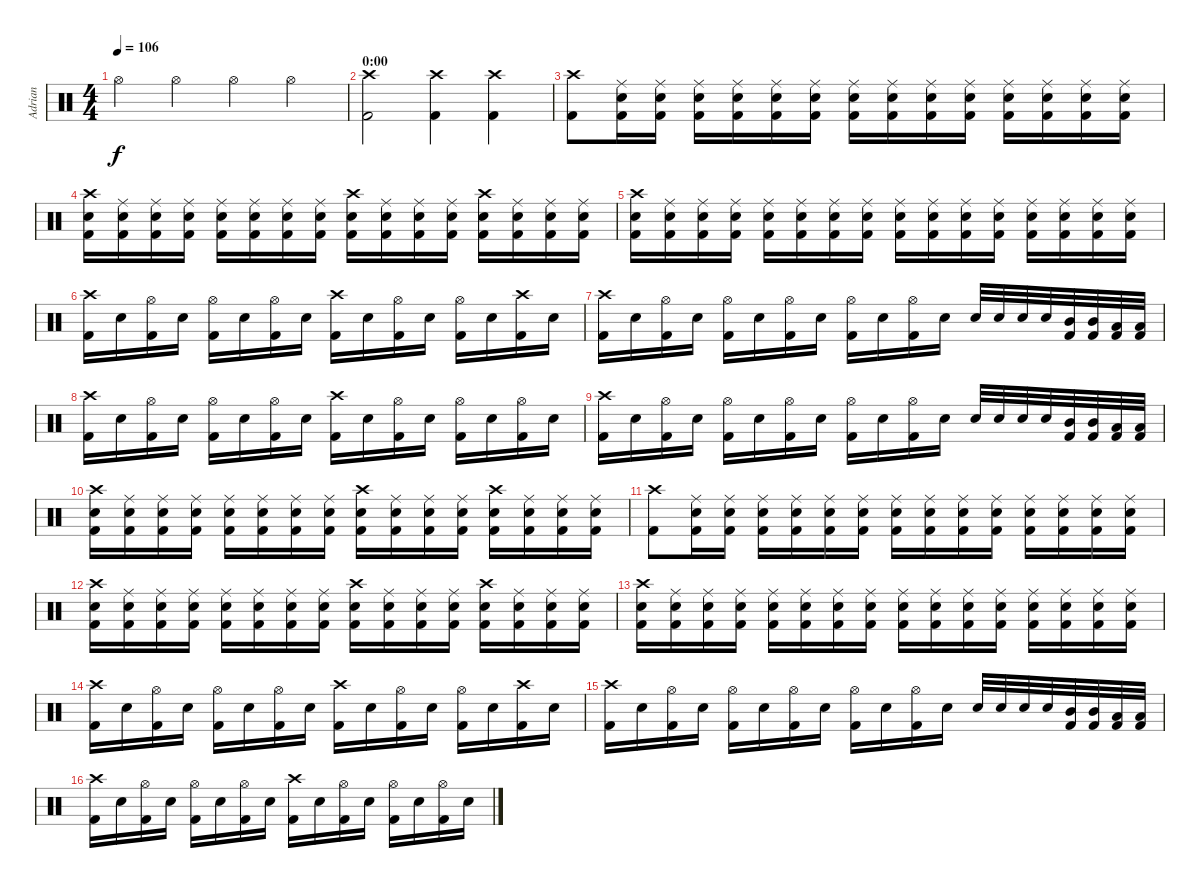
\track ("Adrian" "Adrian") {instrument percussion}
\staff {score}
\articulation defaults
\ts (4 4)
\tempo 106
\clef neutral
\ks c "Hi-Hat (open)".4{dy f} "Hi-Hat (open)".4 "Hi-Hat (open)".4 "Hi-Hat (open)".4
|
\section ("" "0:00")
("Kick (hit) 2" "Crash high (hit)").2 ("Kick (hit) 2" "Crash high (hit)").4 ("Kick (hit) 2" "Crash high (hit)").4 |
("Kick (hit) 2" "Crash high (hit)").8 ("Kick (hit) 2" "Snare (hit) 2" "Ride (middle)").16 ("Kick (hit) 2" "Snare (hit) 2" "Ride (middle)").16 ("Kick (hit) 2" "Snare (hit) 2" "Ride (middle)").16 ("Kick (hit) 2" "Snare (hit) 2" "Ride (middle)").16 ("Kick (hit) 2" "Snare (hit) 2" "Ride (middle)").16 ("Kick (hit) 2" "Snare (hit) 2" "Ride (middle)").16 ("Kick (hit) 2" "Snare (hit) 2" "Ride (middle)").16 ("Kick (hit) 2" "Snare (hit) 2" "Ride (middle)").16 ("Kick (hit) 2" "Snare (hit) 2" "Ride (middle)").16 ("Kick (hit) 2" "Snare (hit) 2" "Ride (middle)").16 ("Kick (hit) 2" "Snare (hit) 2" "Ride (middle)").16 ("Kick (hit) 2" "Snare (hit) 2" "Ride (middle)").16 ("Kick (hit) 2" "Snare (hit) 2" "Ride (middle)").16 ("Kick (hit) 2" "Snare (hit) 2" "Ride (middle)").16 |
("Kick (hit) 2" "Snare (hit) 2" "Crash high (hit)").16 ("Kick (hit) 2" "Snare (hit) 2" "Ride (middle)").16 ("Kick (hit) 2" "Snare (hit) 2" "Ride (middle)").16 ("Kick (hit) 2" "Snare (hit) 2" "Ride (middle)").16 ("Kick (hit) 2" "Snare (hit) 2" "Ride (middle)").16 ("Kick (hit) 2" "Snare (hit) 2" "Ride (middle)").16 ("Kick (hit) 2" "Snare (hit) 2" "Ride (middle)").16 ("Kick (hit) 2" "Snare (hit) 2" "Ride (middle)").16 ("Kick (hit) 2" "Snare (hit) 2" "Crash high (hit)").16 ("Kick (hit) 2" "Snare (hit) 2" "Ride (middle)").16 ("Kick (hit) 2" "Snare (hit) 2" "Ride (middle)").16 ("Kick (hit) 2" "Snare (hit) 2" "Ride (middle)").16 ("Kick (hit) 2" "Snare (hit) 2" "Crash high (hit)").16 ("Kick (hit) 2" "Snare (hit) 2" "Ride (middle)").16 ("Kick (hit) 2" "Snare (hit) 2" "Ride (middle)").16 ("Kick (hit) 2" "Snare (hit) 2" "Ride (middle)").16 |
("Kick (hit) 2" "Snare (hit) 2" "Crash high (hit)").16 ("Kick (hit) 2" "Snare (hit) 2" "Ride (middle)").16 ("Kick (hit) 2" "Snare (hit) 2" "Ride (middle)").16 ("Kick (hit) 2" "Snare (hit) 2" "Ride (middle)").16 ("Kick (hit) 2" "Snare (hit) 2" "Ride (middle)").16 ("Kick (hit) 2" "Snare (hit) 2" "Ride (middle)").16 ("Kick (hit) 2" "Snare (hit) 2" "Ride (middle)").16 ("Kick (hit) 2" "Snare (hit) 2" "Ride (middle)").16 ("Kick (hit) 2" "Snare (hit) 2" "Ride (middle)").16 ("Kick (hit) 2" "Snare (hit) 2" "Ride (middle)").16 ("Kick (hit) 2" "Snare (hit) 2" "Ride (middle)").16 ("Kick (hit) 2" "Snare (hit) 2" "Ride (middle)").16 ("Kick (hit) 2" "Snare (hit) 2" "Ride (middle)").16 ("Kick (hit) 2" "Snare (hit) 2" "Ride (middle)").16 ("Kick (hit) 2" "Snare (hit) 2" "Ride (middle)").16 ("Kick (hit) 2" "Snare (hit) 2" "Ride (middle)").16 |
("Kick (hit) 2" "Crash high (hit)").16 "Snare (hit) 2".16 ("Kick (hit) 2" "Hi-Hat (open)").16 "Snare (hit) 2".16 ("Kick (hit) 2" "Hi-Hat (open)").16 "Snare (hit) 2".16 ("Kick (hit) 2" "Hi-Hat (open)").16 "Snare (hit) 2".16 ("Kick (hit) 2" "Crash high (hit)").16 "Snare (hit) 2".16 ("Kick (hit) 2" "Hi-Hat (open)").16 "Snare (hit) 2".16 ("Kick (hit) 2" "Hi-Hat (open)").16 "Snare (hit) 2".16 ("Kick (hit) 2" "Crash high (hit)").16 "Snare (hit) 2".16 |
("Kick (hit) 2" "Crash high (hit)").16 "Snare (hit) 2".16 ("Kick (hit) 2" "Hi-Hat (open)").16 "Snare (hit) 2".16 ("Kick (hit) 2" "Hi-Hat (open)").16 "Snare (hit) 2".16 ("Kick (hit) 2" "Hi-Hat (open)").16 "Snare (hit) 2".16 ("Kick (hit) 2" "Hi-Hat (open)").16 "Snare (hit) 2".16 ("Kick (hit) 2" "Hi-Hat (open)").16 "Snare (hit) 2".16 "Snare (hit) 2".32 "Snare (hit) 2".32 "Snare (hit) 2".32 "Snare (hit) 2".32 ("Kick (hit) 2" "Mid Tom (hit)").32 ("Kick (hit) 2" "Mid Tom (hit)").32 ("Kick (hit) 2" "Low Tom (hit)").32 ("Kick (hit) 2" "Low Tom (hit)").32 |
("Kick (hit) 2" "Crash high (hit)").16 "Snare (hit) 2".16 ("Kick (hit) 2" "Hi-Hat (open)").16 "Snare (hit) 2".16 ("Kick (hit) 2" "Hi-Hat (open)").16 "Snare (hit) 2".16 ("Kick (hit) 2" "Hi-Hat (open)").16 "Snare (hit) 2".16 ("Kick (hit) 2" "Crash high (hit)").16 "Snare (hit) 2".16 ("Kick (hit) 2" "Hi-Hat (open)").16 "Snare (hit) 2".16 ("Kick (hit) 2" "Hi-Hat (open)").16 "Snare (hit) 2".16 ("Kick (hit) 2" "Hi-Hat (open)").16 "Snare (hit) 2".16 |
("Kick (hit) 2" "Crash high (hit)").16 "Snare (hit) 2".16 ("Kick (hit) 2" "Hi-Hat (open)").16 "Snare (hit) 2".16 ("Kick (hit) 2" "Hi-Hat (open)").16 "Snare (hit) 2".16 ("Kick (hit) 2" "Hi-Hat (open)").16 "Snare (hit) 2".16 ("Kick (hit) 2" "Hi-Hat (open)").16 "Snare (hit) 2".16 ("Kick (hit) 2" "Hi-Hat (open)").16 "Snare (hit) 2".16 "Snare (hit) 2".32 "Snare (hit) 2".32 "Snare (hit) 2".32 "Snare (hit) 2".32 ("Kick (hit) 2" "Mid Tom (hit)").32 ("Kick (hit) 2" "Mid Tom (hit)").32 ("Kick (hit) 2" "Low Tom (hit)").32 ("Kick (hit) 2" "Low Tom (hit)").32 |
("Kick (hit) 2" "Snare (hit) 2" "Crash high (hit)").16 ("Kick (hit) 2" "Snare (hit) 2" "Ride (middle)").16 ("Kick (hit) 2" "Snare (hit) 2" "Ride (middle)").16 ("Kick (hit) 2" "Snare (hit) 2" "Ride (middle)").16 ("Kick (hit) 2" "Snare (hit) 2" "Ride (middle)").16 ("Kick (hit) 2" "Snare (hit) 2" "Ride (middle)").16 ("Kick (hit) 2" "Snare (hit) 2" "Ride (middle)").16 ("Kick (hit) 2" "Snare (hit) 2" "Ride (middle)").16 ("Kick (hit) 2" "Snare (hit) 2" "Crash high (hit)").16 ("Kick (hit) 2" "Snare (hit) 2" "Ride (middle)").16 ("Kick (hit) 2" "Snare (hit) 2" "Ride (middle)").16 ("Kick (hit) 2" "Snare (hit) 2" "Ride (middle)").16 ("Kick (hit) 2" "Snare (hit) 2" "Crash high (hit)").16 ("Kick (hit) 2" "Snare (hit) 2" "Ride (middle)").16 ("Kick (hit) 2" "Snare (hit) 2" "Ride (middle)").16 ("Kick (hit) 2" "Snare (hit) 2" "Ride (middle)").16 |
("Kick (hit) 2" "Crash high (hit)").8 ("Kick (hit) 2" "Snare (hit) 2" "Ride (middle)").16 ("Kick (hit) 2" "Snare (hit) 2" "Ride (middle)").16 ("Kick (hit) 2" "Snare (hit) 2" "Ride (middle)").16 ("Kick (hit) 2" "Snare (hit) 2" "Ride (middle)").16 ("Kick (hit) 2" "Snare (hit) 2" "Ride (middle)").16 ("Kick (hit) 2" "Snare (hit) 2" "Ride (middle)").16 ("Kick (hit) 2" "Snare (hit) 2" "Ride (middle)").16 ("Kick (hit) 2" "Snare (hit) 2" "Ride (middle)").16 ("Kick (hit) 2" "Snare (hit) 2" "Ride (middle)").16 ("Kick (hit) 2" "Snare (hit) 2" "Ride (middle)").16 ("Kick (hit) 2" "Snare (hit) 2" "Ride (middle)").16 ("Kick (hit) 2" "Snare (hit) 2" "Ride (middle)").16 ("Kick (hit) 2" "Snare (hit) 2" "Ride (middle)").16 ("Kick (hit) 2" "Snare (hit) 2" "Ride (middle)").16 |
("Kick (hit) 2" "Snare (hit) 2" "Crash high (hit)").16 ("Kick (hit) 2" "Snare (hit) 2" "Ride (middle)").16 ("Kick (hit) 2" "Snare (hit) 2" "Ride (middle)").16 ("Kick (hit) 2" "Snare (hit) 2" "Ride (middle)").16 ("Kick (hit) 2" "Snare (hit) 2" "Ride (middle)").16 ("Kick (hit) 2" "Snare (hit) 2" "Ride (middle)").16 ("Kick (hit) 2" "Snare (hit) 2" "Ride (middle)").16 ("Kick (hit) 2" "Snare (hit) 2" "Ride (middle)").16 ("Kick (hit) 2" "Snare (hit) 2" "Crash high (hit)").16 ("Kick (hit) 2" "Snare (hit) 2" "Ride (middle)").16 ("Kick (hit) 2" "Snare (hit) 2" "Ride (middle)").16 ("Kick (hit) 2" "Snare (hit) 2" "Ride (middle)").16 ("Kick (hit) 2" "Snare (hit) 2" "Crash high (hit)").16 ("Kick (hit) 2" "Snare (hit) 2" "Ride (middle)").16 ("Kick (hit) 2" "Snare (hit) 2" "Ride (middle)").16 ("Kick (hit) 2" "Snare (hit) 2" "Ride (middle)").16 |
("Kick (hit) 2" "Snare (hit) 2" "Crash high (hit)").16 ("Kick (hit) 2" "Snare (hit) 2" "Ride (middle)").16 ("Kick (hit) 2" "Snare (hit) 2" "Ride (middle)").16 ("Kick (hit) 2" "Snare (hit) 2" "Ride (middle)").16 ("Kick (hit) 2" "Snare (hit) 2" "Ride (middle)").16 ("Kick (hit) 2" "Snare (hit) 2" "Ride (middle)").16 ("Kick (hit) 2" "Snare (hit) 2" "Ride (middle)").16 ("Kick (hit) 2" "Snare (hit) 2" "Ride (middle)").16 ("Kick (hit) 2" "Snare (hit) 2" "Ride (middle)").16 ("Kick (hit) 2" "Snare (hit) 2" "Ride (middle)").16 ("Kick (hit) 2" "Snare (hit) 2" "Ride (middle)").16 ("Kick (hit) 2" "Snare (hit) 2" "Ride (middle)").16 ("Kick (hit) 2" "Snare (hit) 2" "Ride (middle)").16 ("Kick (hit) 2" "Snare (hit) 2" "Ride (middle)").16 ("Kick (hit) 2" "Snare (hit) 2" "Ride (middle)").16 ("Kick (hit) 2" "Snare (hit) 2" "Ride (middle)").16 |
("Kick (hit) 2" "Crash high (hit)").16 "Snare (hit) 2".16 ("Kick (hit) 2" "Hi-Hat (open)").16 "Snare (hit) 2".16 ("Kick (hit) 2" "Hi-Hat (open)").16 "Snare (hit) 2".16 ("Kick (hit) 2" "Hi-Hat (open)").16 "Snare (hit) 2".16 ("Kick (hit) 2" "Crash high (hit)").16 "Snare (hit) 2".16 ("Kick (hit) 2" "Hi-Hat (open)").16 "Snare (hit) 2".16 ("Kick (hit) 2" "Hi-Hat (open)").16 "Snare (hit) 2".16 ("Kick (hit) 2" "Crash high (hit)").16 "Snare (hit) 2".16 |
("Kick (hit) 2" "Crash high (hit)").16 "Snare (hit) 2".16 ("Kick (hit) 2" "Hi-Hat (open)").16 "Snare (hit) 2".16 ("Kick (hit) 2" "Hi-Hat (open)").16 "Snare (hit) 2".16 ("Kick (hit) 2" "Hi-Hat (open)").16 "Snare (hit) 2".16 ("Kick (hit) 2" "Hi-Hat (open)").16 "Snare (hit) 2".16 ("Kick (hit) 2" "Hi-Hat (open)").16 "Snare (hit) 2".16 "Snare (hit) 2".32 "Snare (hit) 2".32 "Snare (hit) 2".32 "Snare (hit) 2".32 ("Kick (hit) 2" "Mid Tom (hit)").32 ("Kick (hit) 2" "Mid Tom (hit)").32 ("Kick (hit) 2" "Low Tom (hit)").32 ("Kick (hit) 2" "Low Tom (hit)").32 |
("Kick (hit) 2" "Crash high (hit)").16 "Snare (hit) 2".16 ("Kick (hit) 2" "Hi-Hat (open)").16 "Snare (hit) 2".16 ("Kick (hit) 2" "Hi-Hat (open)").16 "Snare (hit) 2".16 ("Kick (hit) 2" "Hi-Hat (open)").16 "Snare (hit) 2".16 ("Kick (hit) 2" "Crash high (hit)").16 "Snare (hit) 2".16 ("Kick (hit) 2" "Hi-Hat (open)").16 "Snare (hit) 2".16 ("Kick (hit) 2" "Hi-Hat (open)").16 "Snare (hit) 2".16 ("Kick (hit) 2" "Hi-Hat (open)").16 "Snare (hit) 2".16
